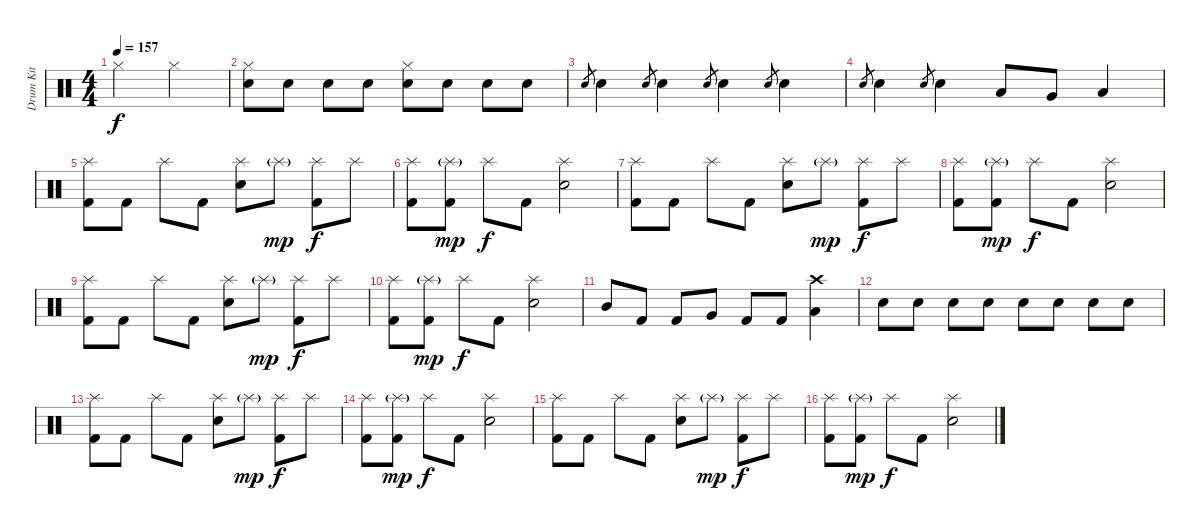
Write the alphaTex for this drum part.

\track ("Drum Kit" "Drum Kit") {instrument percussion}
\staff {score}
\articulation defaults
\ts (4 4)
\tempo 157
\clef neutral
\ks c "Hi-Hat (closed)".2{dy f} "Hi-Hat (closed)".2{volume 5}
|
("Hi-Hat (closed)" "Snare (hit) 2").8{volume 13} "Snare (hit) 2".8 "Snare (hit) 2".8 "Snare (hit) 2".8 ("Hi-Hat (closed)" "Snare (hit) 2").8 "Snare (hit) 2".8 "Snare (hit) 2".8 "Snare (hit) 2".8 |
"Snare (hit) 2".8{gr} "Snare (hit) 2".4 "Snare (hit) 2".8{gr} "Snare (hit) 2".4 "Snare (hit) 2".8{gr} "Snare (hit) 2".4 "Snare (hit) 2".8{gr} "Snare (hit) 2".4 |
"Snare (hit) 2".8{gr} "Snare (hit) 2".4 "Snare (hit) 2".8{gr} "Snare (hit) 2".4 "Low Tom (hit)".8 "Very Low Tom (hit)".8 "Low Floor Tom (hit)".4 |
("Splash (hit)" "Kick (hit) 2").8 "Kick (hit) 2".8 "Splash (hit)".8 "Kick (hit) 2".8 ("Splash (hit)" "Snare (hit) 2").8 "Splash (hit)"{g}.8{dy mp} ("Splash (hit)" "Kick (hit) 2").8{dy f} "Splash (hit)".8 |
("Splash (hit)" "Kick (hit) 2").8 ("Splash (hit)"{g} "Kick (hit) 2").8{dy mp} "Splash (hit)".8{dy f} "Kick (hit) 2".8 ("Splash (hit)" "Snare (hit) 2").2 |
("Splash (hit)" "Kick (hit) 2").8 "Kick (hit) 2".8 "Splash (hit)".8 "Kick (hit) 2".8 ("Splash (hit)" "Snare (hit) 2").8 "Splash (hit)"{g}.8{dy mp} ("Splash (hit)" "Kick (hit) 2").8{dy f} "Splash (hit)".8 |
("Splash (hit)" "Kick (hit) 2").8 ("Splash (hit)"{g} "Kick (hit) 2").8{dy mp} "Splash (hit)".8{dy f} "Kick (hit) 2".8 ("Splash (hit)" "Snare (hit) 2").2 |
("Splash (hit)" "Kick (hit) 2").8 "Kick (hit) 2".8 "Splash (hit)".8 "Kick (hit) 2".8 ("Splash (hit)" "Snare (hit) 2").8 "Splash (hit)"{g}.8{dy mp} ("Splash (hit)" "Kick (hit) 2").8{dy f} "Splash (hit)".8 |
("Splash (hit)" "Kick (hit) 2").8 ("Splash (hit)"{g} "Kick (hit) 2").8{dy mp} "Splash (hit)".8{dy f} "Kick (hit) 2".8 ("Splash (hit)" "Snare (hit) 2").2 |
"Mid Tom (hit)".8 "Kick (hit) 2".8 "Kick (hit) 2".8 "Very Low Tom (hit)".8 "Kick (hit) 2".8 "Kick (hit) 2".8 ("Crash high (hit)" "Low Floor Tom (hit)").4 |
"Snare (hit) 2".8 "Snare (hit) 2".8 "Snare (hit) 2".8 "Snare (hit) 2".8 "Snare (hit) 2".8 "Snare (hit) 2".8 "Snare (hit) 2".8 "Snare (hit) 2".8 |
("Splash (hit)" "Kick (hit) 2").8 "Kick (hit) 2".8 "Splash (hit)".8 "Kick (hit) 2".8 ("Splash (hit)" "Snare (hit) 2").8 "Splash (hit)"{g}.8{dy mp} ("Splash (hit)" "Kick (hit) 2").8{dy f} "Splash (hit)".8 |
("Splash (hit)" "Kick (hit) 2").8 ("Splash (hit)"{g} "Kick (hit) 2").8{dy mp} "Splash (hit)".8{dy f} "Kick (hit) 2".8 ("Splash (hit)" "Snare (hit) 2").2 |
("Splash (hit)" "Kick (hit) 2").8 "Kick (hit) 2".8 "Splash (hit)".8 "Kick (hit) 2".8 ("Splash (hit)" "Snare (hit) 2").8 "Splash (hit)"{g}.8{dy mp} ("Splash (hit)" "Kick (hit) 2").8{dy f} "Splash (hit)".8 |
("Splash (hit)" "Kick (hit) 2").8 ("Splash (hit)"{g} "Kick (hit) 2").8{dy mp} "Splash (hit)".8{dy f} "Kick (hit) 2".8 ("Splash (hit)" "Snare (hit) 2").2
